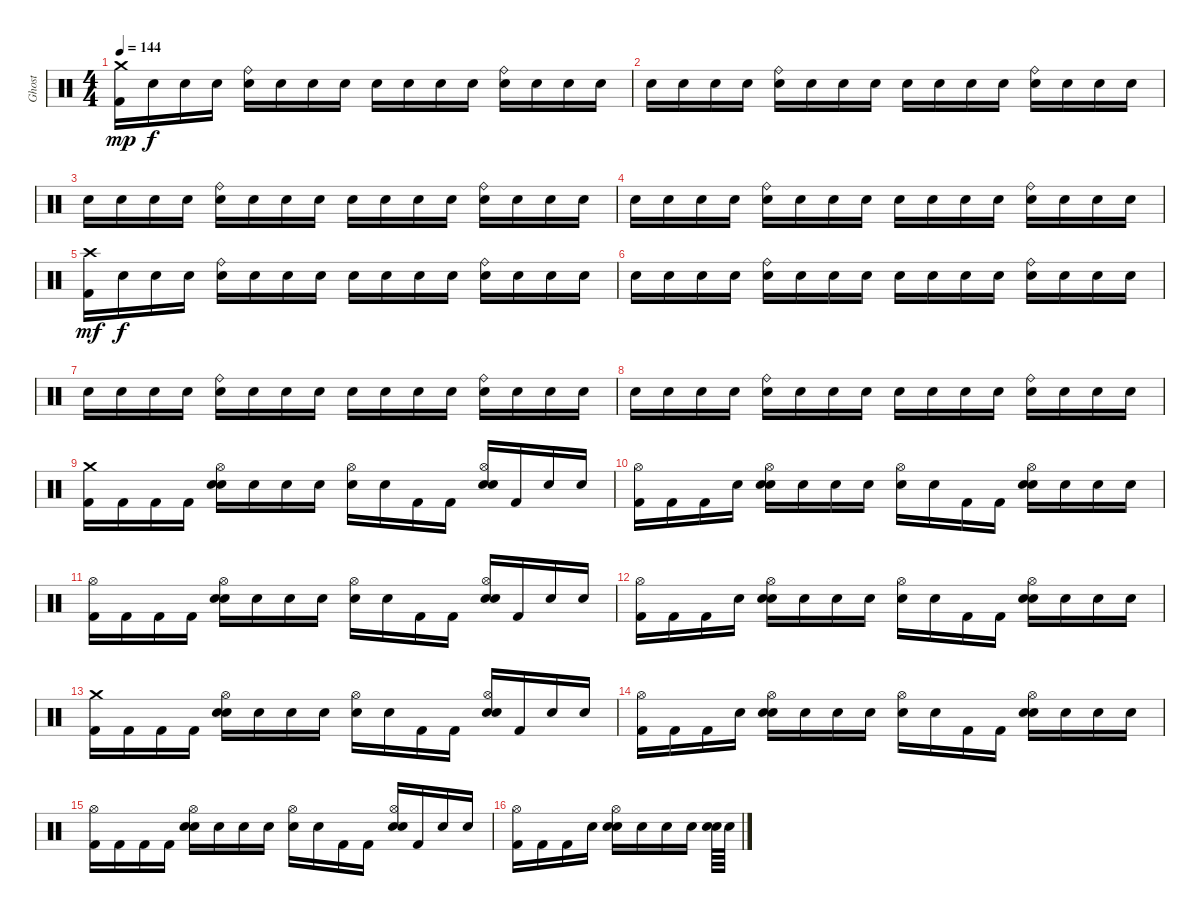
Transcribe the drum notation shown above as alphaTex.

\track ("Ghost" "Ghost") {instrument percussion}
\staff {score}
\articulation defaults
\ts (4 4)
\tempo 144
\clef neutral
\ks c
("Crash medium (hit)" "Kick (hit) 2").16{dy mp} "Snare (hit)".16{dy f} "Snare (hit)".16 "Snare (hit)".16 ("Ride (bell)" "Snare (hit)").16 "Snare (hit)".16 "Snare (hit)".16 "Snare (hit)".16 "Snare (hit)".16 "Snare (hit)".16 "Snare (hit)".16 "Snare (hit)".16 ("Ride (bell)" "Snare (hit)").16 "Snare (hit)".16 "Snare (hit)".16 "Snare (hit)".16 |
"Snare (hit)".16 "Snare (hit)".16 "Snare (hit)".16 "Snare (hit)".16 ("Ride (bell)" "Snare (hit)").16 "Snare (hit)".16 "Snare (hit)".16 "Snare (hit)".16 "Snare (hit)".16 "Snare (hit)".16 "Snare (hit)".16 "Snare (hit)".16 ("Ride (bell)" "Snare (hit)").16 "Snare (hit)".16 "Snare (hit)".16 "Snare (hit)".16 |
"Snare (hit)".16 "Snare (hit)".16 "Snare (hit)".16 "Snare (hit)".16 ("Ride (bell)" "Snare (hit)").16 "Snare (hit)".16 "Snare (hit)".16 "Snare (hit)".16 "Snare (hit)".16 "Snare (hit)".16 "Snare (hit)".16 "Snare (hit)".16 ("Ride (bell)" "Snare (hit)").16 "Snare (hit)".16 "Snare (hit)".16 "Snare (hit)".16 |
"Snare (hit)".16 "Snare (hit)".16 "Snare (hit)".16 "Snare (hit)".16 ("Ride (bell)" "Snare (hit)").16 "Snare (hit)".16 "Snare (hit)".16 "Snare (hit)".16 "Snare (hit)".16 "Snare (hit)".16 "Snare (hit)".16 "Snare (hit)".16 ("Ride (bell)" "Snare (hit)").16 "Snare (hit)".16 "Snare (hit)".16 "Snare (hit)".16 |
("Crash high (hit)" "Kick (hit) 2").16{dy mf} "Snare (hit)".16{dy f} "Snare (hit)".16 "Snare (hit)".16 ("Ride (bell)" "Snare (hit)").16 "Snare (hit)".16 "Snare (hit)".16 "Snare (hit)".16 "Snare (hit)".16 "Snare (hit)".16 "Snare (hit)".16 "Snare (hit)".16 ("Ride (bell)" "Snare (hit)").16 "Snare (hit)".16 "Snare (hit)".16 "Snare (hit)".16 |
"Snare (hit)".16 "Snare (hit)".16 "Snare (hit)".16 "Snare (hit)".16 ("Ride (bell)" "Snare (hit)").16 "Snare (hit)".16 "Snare (hit)".16 "Snare (hit)".16 "Snare (hit)".16 "Snare (hit)".16 "Snare (hit)".16 "Snare (hit)".16 ("Ride (bell)" "Snare (hit)").16 "Snare (hit)".16 "Snare (hit)".16 "Snare (hit)".16 |
"Snare (hit)".16 "Snare (hit)".16 "Snare (hit)".16 "Snare (hit)".16 ("Ride (bell)" "Snare (hit)").16 "Snare (hit)".16 "Snare (hit)".16 "Snare (hit)".16 "Snare (hit)".16 "Snare (hit)".16 "Snare (hit)".16 "Snare (hit)".16 ("Ride (bell)" "Snare (hit)").16 "Snare (hit)".16 "Snare (hit)".16 "Snare (hit)".16 |
"Snare (hit)".16 "Snare (hit)".16 "Snare (hit)".16 "Snare (hit)".16 ("Ride (bell)" "Snare (hit)").16 "Snare (hit)".16 "Snare (hit)".16 "Snare (hit)".16 "Snare (hit)".16 "Snare (hit)".16 "Snare (hit)".16 "Snare (hit)".16 ("Ride (bell)" "Snare (hit)").16 "Snare (hit)".16 "Snare (hit)".16 "Snare (hit)".16 |
("Crash medium (hit)" "Kick (hit) 2").16 "Kick (hit) 2".16 "Kick (hit) 2".16 "Kick (hit) 2".16 ("Hi-Hat (open)" "Electric Snare (hit)" "Snare (hit)").16 "Snare (hit)".16 "Snare (hit)".16 "Electric Snare (hit)".16 ("Hi-Hat (open)" "Snare (hit)").16 "Snare (hit)".16 "Kick (hit) 2".16 "Kick (hit) 2".16 ("Hi-Hat (open)" "Electric Snare (hit)" "Snare (hit)").16 "Kick (hit) 2".16 "Snare (hit)".16 "Snare (hit)".16 |
("Hi-Hat (open)" "Kick (hit) 2").16 "Kick (hit) 2".16 "Kick (hit) 2".16 "Snare (hit)".16 ("Hi-Hat (open)" "Electric Snare (hit)" "Snare (hit)").16 "Snare (hit)".16 "Snare (hit)".16 "Electric Snare (hit)".16 ("Hi-Hat (open)" "Snare (hit)").16 "Snare (hit)".16 "Kick (hit) 2".16 "Kick (hit) 2".16 ("Hi-Hat (open)" "Electric Snare (hit)" "Snare (hit)").16 "Snare (hit)".16 "Snare (hit)".16 "Snare (hit)".16 |
("Hi-Hat (open)" "Kick (hit) 2").16 "Kick (hit) 2".16 "Kick (hit) 2".16 "Kick (hit) 2".16 ("Hi-Hat (open)" "Electric Snare (hit)" "Snare (hit)").16 "Snare (hit)".16 "Snare (hit)".16 "Electric Snare (hit)".16 ("Hi-Hat (open)" "Snare (hit)").16 "Snare (hit)".16 "Kick (hit) 2".16 "Kick (hit) 2".16 ("Hi-Hat (open)" "Electric Snare (hit)" "Snare (hit)").16 "Kick (hit) 2".16 "Snare (hit)".16 "Snare (hit)".16 |
("Hi-Hat (open)" "Kick (hit) 2").16 "Kick (hit) 2".16 "Kick (hit) 2".16 "Snare (hit)".16 ("Hi-Hat (open)" "Electric Snare (hit)" "Snare (hit)").16 "Snare (hit)".16 "Snare (hit)".16 "Electric Snare (hit)".16 ("Hi-Hat (open)" "Snare (hit)").16 "Snare (hit)".16 "Kick (hit) 2".16 "Kick (hit) 2".16 ("Hi-Hat (open)" "Electric Snare (hit)" "Snare (hit)").16 "Snare (hit)".16 "Snare (hit)".16 "Snare (hit)".16 |
("Crash medium (hit)" "Kick (hit) 2").16 "Kick (hit) 2".16 "Kick (hit) 2".16 "Kick (hit) 2".16 ("Hi-Hat (open)" "Electric Snare (hit)" "Snare (hit)").16 "Snare (hit)".16 "Snare (hit)".16 "Electric Snare (hit)".16 ("Hi-Hat (open)" "Snare (hit)").16 "Snare (hit)".16 "Kick (hit) 2".16 "Kick (hit) 2".16 ("Hi-Hat (open)" "Electric Snare (hit)" "Snare (hit)").16 "Kick (hit) 2".16 "Snare (hit)".16 "Snare (hit)".16 |
("Hi-Hat (open)" "Kick (hit) 2").16 "Kick (hit) 2".16 "Kick (hit) 2".16 "Snare (hit)".16 ("Hi-Hat (open)" "Electric Snare (hit)" "Snare (hit)").16 "Snare (hit)".16 "Snare (hit)".16 "Electric Snare (hit)".16 ("Hi-Hat (open)" "Snare (hit)").16 "Snare (hit)".16 "Kick (hit) 2".16 "Kick (hit) 2".16 ("Hi-Hat (open)" "Electric Snare (hit)" "Snare (hit)").16 "Snare (hit)".16 "Snare (hit)".16 "Snare (hit)".16 |
("Hi-Hat (open)" "Kick (hit) 2").16 "Kick (hit) 2".16 "Kick (hit) 2".16 "Kick (hit) 2".16 ("Hi-Hat (open)" "Electric Snare (hit)" "Snare (hit)").16 "Snare (hit)".16 "Snare (hit)".16 "Electric Snare (hit)".16 ("Hi-Hat (open)" "Snare (hit)").16 "Snare (hit)".16 "Kick (hit) 2".16 "Kick (hit) 2".16 ("Hi-Hat (open)" "Electric Snare (hit)" "Snare (hit)").16 "Kick (hit) 2".16 "Snare (hit)".16 "Snare (hit)".16 |
("Hi-Hat (open)" "Kick (hit) 2").16 "Kick (hit) 2".16 "Kick (hit) 2".16 "Snare (hit)".16 ("Hi-Hat (open)" "Electric Snare (hit)" "Snare (hit)").16 "Snare (hit)".16 "Snare (hit)".16 "Snare (hit)".16 ("Electric Snare (hit)" "Snare (hit)").64 "Electric Snare (hit)".64
